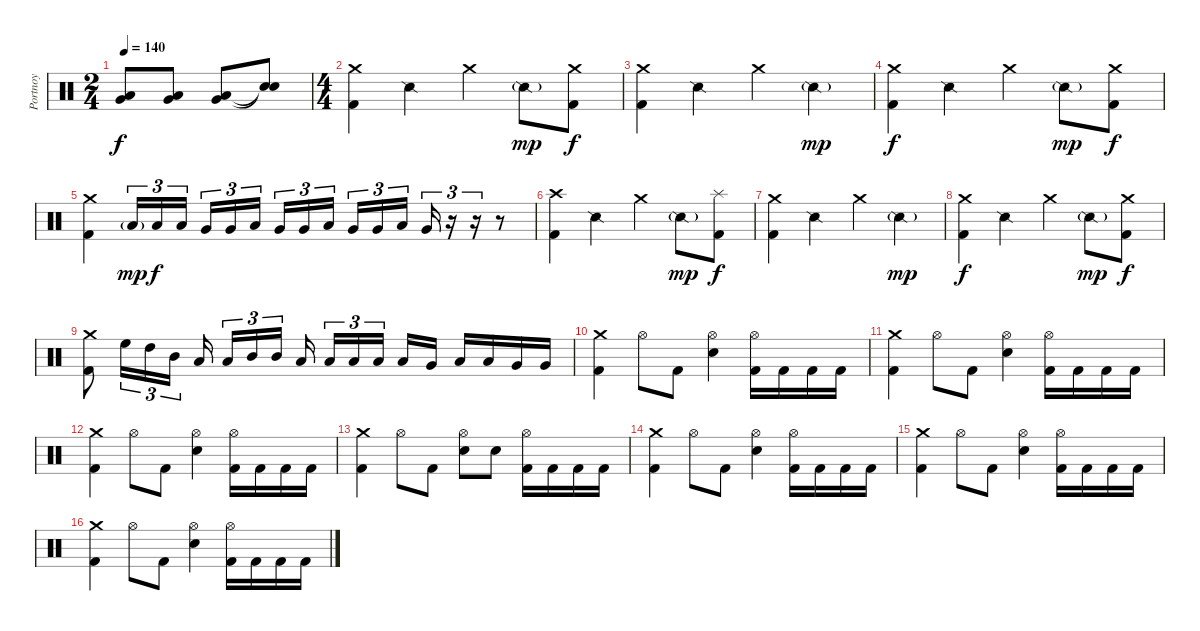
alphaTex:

\track ("Portnoy" "Portnoy") {instrument percussion}
\staff {score}
\articulation defaults
\ts (2 4)
\tempo 140
\clef neutral
\ks c
("Very Low Tom (hit)" "Low Tom (hit)").8{dy f} ("Very Low Tom (hit)" "Low Tom (hit)").8 ("Very Low Tom (hit)" "Low Tom (hit)").8 ("Snare (hit)"{t} "Snare (hit)"{t}).8 |
\ts (4 4)
("Kick (hit) 2" "Crash medium (hit)").4 "Snare (side stick) 2".4 "Crash medium (hit)".4 "Snare (side stick) 2"{g}.8{dy mp} ("Kick (hit) 2" "Crash medium (hit)").8{dy f} |
("Kick (hit) 2" "Crash medium (hit)").4 "Snare (side stick) 2".4 "Crash medium (hit)".4 "Snare (side stick) 2"{g}.4{dy mp} |
("Kick (hit) 2" "Crash medium (hit)").4{dy f} "Snare (side stick) 2".4 "Crash medium (hit)".4 "Snare (side stick) 2"{g}.8{dy mp} ("Kick (hit) 2" "Crash medium (hit)").8{dy f} |
("Kick (hit) 2" "Crash medium (hit)").4 "Low Tom (hit)"{g}.16{tu (3 2) dy mp} "Low Tom (hit)".16{tu (3 2) dy f} "Low Tom (hit)".16{tu (3 2)} "Very Low Tom (hit)".16{tu (3 2)} "Very Low Tom (hit)".16{tu (3 2)} "Low Tom (hit)".16{tu (3 2)} "Very Low Tom (hit)".16{tu (3 2)} "Very Low Tom (hit)".16{tu (3 2)} "Low Floor Tom (hit)".16{tu (3 2)} "Very Low Tom (hit)".16{tu (3 2)} "Very Low Tom (hit)".16{tu (3 2)} "Low Floor Tom (hit)".16{tu (3 2)} "Very Low Tom (hit)".16{tu (3 2)} r.16{tu (3 2)} r.16{tu (3 2)} r.8 |
("Kick (hit) 2" "Crash high (hit)").4 "Snare (side stick) 2".4 "Crash medium (hit)".4 "Snare (side stick) 2"{g}.8{dy mp} ("Kick (hit) 2" "Splash (hit)").8{dy f} |
("Kick (hit) 2" "Crash medium (hit)").4 "Snare (side stick) 2".4 "Crash medium (hit)".4 "Snare (side stick) 2"{g}.4{dy mp} |
("Kick (hit) 2" "Crash medium (hit)").4{dy f} "Snare (side stick) 2".4 "Crash medium (hit)".4 "Snare (side stick) 2"{g}.8{dy mp} ("Kick (hit) 2" "Crash medium (hit)").8{dy f} |
("Kick (hit) 2" "Crash medium (hit)").8 "High Floor Tom (hit)".16{tu (3 2)} "High Tom (hit)".16{tu (3 2)} "Mid Tom (hit)".16{tu (3 2)} "Low Tom (hit)".16 "Low Tom (hit)".16{tu (3 2)} "Mid Tom (hit)".16{tu (3 2)} "Mid Tom (hit)".16{tu (3 2)} "Low Tom (hit)".16 "Low Tom (hit)".16{tu (3 2)} "Low Tom (hit)".16{tu (3 2)} "Low Tom (hit)".16{tu (3 2)} "Low Tom (hit)".16 "Very Low Tom (hit)".16 "Low Tom (hit)".16 "Low Tom (hit)".16 "Very Low Tom (hit)".16 "Very Low Tom (hit)".16 |
("Kick (hit) 2" "Crash medium (hit)").4 "Hi-Hat (open)".8 "Kick (hit) 2".8 ("Electric Snare (hit)" "Hi-Hat (open)").4 ("Kick (hit) 2" "Hi-Hat (open)").16 "Kick (hit) 2".16 "Kick (hit) 2".16 "Kick (hit) 2".16 |
("Kick (hit) 2" "Crash medium (hit)").4 "Hi-Hat (open)".8 "Kick (hit) 2".8 ("Electric Snare (hit)" "Hi-Hat (open)").4 ("Kick (hit) 2" "Hi-Hat (open)").16 "Kick (hit) 2".16 "Kick (hit) 2".16 "Kick (hit) 2".16 |
("Kick (hit) 2" "Crash medium (hit)").4 "Hi-Hat (open)".8 "Kick (hit) 2".8 ("Electric Snare (hit)" "Hi-Hat (open)").4 ("Kick (hit) 2" "Hi-Hat (open)").16 "Kick (hit) 2".16 "Kick (hit) 2".16 "Kick (hit) 2".16 |
("Kick (hit) 2" "Crash medium (hit)").4 "Hi-Hat (open)".8 "Kick (hit) 2".8 ("Electric Snare (hit)" "Hi-Hat (open)").8 "Electric Snare (hit)".8 ("Kick (hit) 2" "Hi-Hat (open)").16 "Kick (hit) 2".16 "Kick (hit) 2".16 "Kick (hit) 2".16 |
("Kick (hit) 2" "Crash medium (hit)").4 "Hi-Hat (open)".8 "Kick (hit) 2".8 ("Electric Snare (hit)" "Hi-Hat (open)").4 ("Kick (hit) 2" "Hi-Hat (open)").16 "Kick (hit) 2".16 "Kick (hit) 2".16 "Kick (hit) 2".16 |
("Kick (hit) 2" "Crash medium (hit)").4 "Hi-Hat (open)".8 "Kick (hit) 2".8 ("Electric Snare (hit)" "Hi-Hat (open)").4 ("Kick (hit) 2" "Hi-Hat (open)").16 "Kick (hit) 2".16 "Kick (hit) 2".16 "Kick (hit) 2".16 |
("Kick (hit) 2" "Crash medium (hit)").4 "Hi-Hat (open)".8 "Kick (hit) 2".8 ("Electric Snare (hit)" "Hi-Hat (open)").4 ("Kick (hit) 2" "Hi-Hat (open)").16 "Kick (hit) 2".16 "Kick (hit) 2".16 "Kick (hit) 2".16
